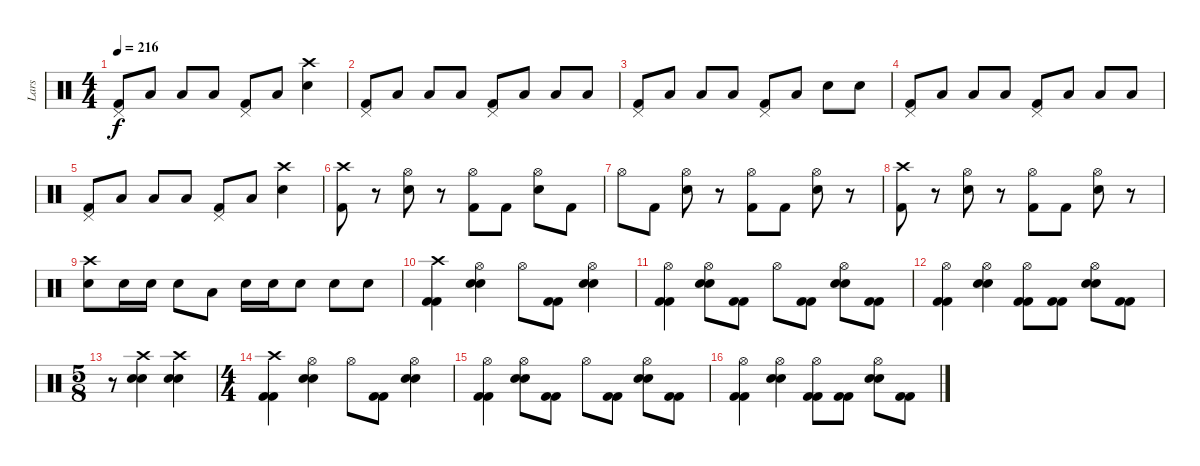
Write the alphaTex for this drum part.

\track ("Lars" "Lars") {instrument percussion}
\staff {score}
\articulation defaults
\ts (4 4)
\tempo 216
\clef neutral
\ks c
("Pedal Hi-Hat (hit)" "Kick (hit) 2").8{dy f} "Low Tom (hit)".8 "Low Tom (hit)".8 "Low Tom (hit)".8 ("Pedal Hi-Hat (hit)" "Kick (hit) 2").8 "Low Tom (hit)".8 ("Crash high (hit)" "Snare (hit) 2").4 |
("Pedal Hi-Hat (hit)" "Kick (hit) 2").8 "Low Tom (hit)".8 "Low Tom (hit)".8 "Low Tom (hit)".8 ("Pedal Hi-Hat (hit)" "Kick (hit) 2").8 "Low Tom (hit)".8 "Low Tom (hit)".8 "Low Tom (hit)".8 |
("Pedal Hi-Hat (hit)" "Kick (hit) 2").8 "Low Tom (hit)".8 "Low Tom (hit)".8 "Low Tom (hit)".8 ("Pedal Hi-Hat (hit)" "Kick (hit) 2").8 "Low Tom (hit)".8 "Snare (hit) 2".8 "Snare (hit) 2".8 |
("Pedal Hi-Hat (hit)" "Kick (hit) 2").8 "Low Tom (hit)".8 "Low Tom (hit)".8 "Low Tom (hit)".8 ("Pedal Hi-Hat (hit)" "Kick (hit) 2").8 "Low Tom (hit)".8 "Low Tom (hit)".8 "Low Tom (hit)".8 |
("Pedal Hi-Hat (hit)" "Kick (hit) 2").8 "Low Tom (hit)".8 "Low Tom (hit)".8 "Low Tom (hit)".8 ("Pedal Hi-Hat (hit)" "Kick (hit) 2").8 "Low Tom (hit)".8 ("Crash high (hit)" "Snare (hit) 2").4 |
("Crash high (hit)" "Kick (hit) 2").8 r.8 ("Hi-Hat (open)" "Snare (hit) 2").8 r.8 ("Hi-Hat (open)" "Kick (hit) 2").8 "Kick (hit) 2".8 ("Hi-Hat (open)" "Snare (hit) 2").8 "Kick (hit) 2".8 |
"Hi-Hat (open)".8 "Kick (hit) 2".8 ("Hi-Hat (open)" "Snare (hit) 2").8 r.8 ("Hi-Hat (open)" "Kick (hit) 2").8 "Kick (hit) 2".8 ("Hi-Hat (open)" "Snare (hit) 2").8 r.8 |
("Crash high (hit)" "Kick (hit) 2").8 r.8 ("Hi-Hat (open)" "Snare (hit) 2").8 r.8 ("Hi-Hat (open)" "Kick (hit) 2").8 "Kick (hit) 2".8 ("Hi-Hat (open)" "Snare (hit) 2").8 r.8 |
("Crash high (hit)" "Snare (hit) 2").8 "Snare (hit) 2".16 "Snare (hit) 2".16 "Snare (hit) 2".8 "Low Tom (hit)".8 "Snare (hit) 2".16 "Snare (hit) 2".16 "Snare (hit) 2".8 "Snare (hit) 2".8 "Snare (hit) 2".8 |
("Crash high (hit)" "Kick (hit) 2" "Kick (hit) 2").4{volume 10} ("Hi-Hat (open)" "Electric Snare (hit)" "Electric Snare (hit)").4 "Hi-Hat (open)".8 ("Kick (hit) 2" "Kick (hit) 2").8 ("Hi-Hat (open)" "Electric Snare (hit)" "Electric Snare (hit)").4 |
("Hi-Hat (open)" "Kick (hit) 2" "Kick (hit) 2").4 ("Hi-Hat (open)" "Electric Snare (hit)" "Electric Snare (hit)").8 ("Kick (hit) 2" "Kick (hit) 2").8 "Hi-Hat (open)".8 ("Kick (hit) 2" "Kick (hit) 2").8 ("Hi-Hat (open)" "Electric Snare (hit)" "Electric Snare (hit)").8 ("Kick (hit) 2" "Kick (hit) 2").8 |
("Hi-Hat (open)" "Kick (hit) 2" "Kick (hit) 2").4 ("Hi-Hat (open)" "Electric Snare (hit)" "Electric Snare (hit)").4 ("Hi-Hat (open)" "Kick (hit) 2" "Kick (hit) 2").8 ("Kick (hit) 2" "Kick (hit) 2").8 ("Hi-Hat (open)" "Electric Snare (hit)" "Electric Snare (hit)").8 ("Kick (hit) 2" "Kick (hit) 2").8 |
\ts (5 8)
r.8 ("Crash high (hit)" "Electric Snare (hit)" "Electric Snare (hit)").4 ("Crash high (hit)" "Electric Snare (hit)" "Electric Snare (hit)").4 |
\ts (4 4)
("Crash high (hit)" "Kick (hit) 2" "Kick (hit) 2").4 ("Hi-Hat (open)" "Electric Snare (hit)" "Electric Snare (hit)").4 "Hi-Hat (open)".8 ("Kick (hit) 2" "Kick (hit) 2").8 ("Hi-Hat (open)" "Electric Snare (hit)" "Electric Snare (hit)").4 |
("Hi-Hat (open)" "Kick (hit) 2" "Kick (hit) 2").4 ("Hi-Hat (open)" "Electric Snare (hit)" "Electric Snare (hit)").8 ("Kick (hit) 2" "Kick (hit) 2").8 "Hi-Hat (open)".8 ("Kick (hit) 2" "Kick (hit) 2").8 ("Hi-Hat (open)" "Electric Snare (hit)" "Electric Snare (hit)").8 ("Kick (hit) 2" "Kick (hit) 2").8 |
("Hi-Hat (open)" "Kick (hit) 2" "Kick (hit) 2").4 ("Hi-Hat (open)" "Electric Snare (hit)" "Electric Snare (hit)").4 ("Hi-Hat (open)" "Kick (hit) 2" "Kick (hit) 2").8 ("Kick (hit) 2" "Kick (hit) 2").8 ("Hi-Hat (open)" "Electric Snare (hit)" "Electric Snare (hit)").8 ("Kick (hit) 2" "Kick (hit) 2").8
